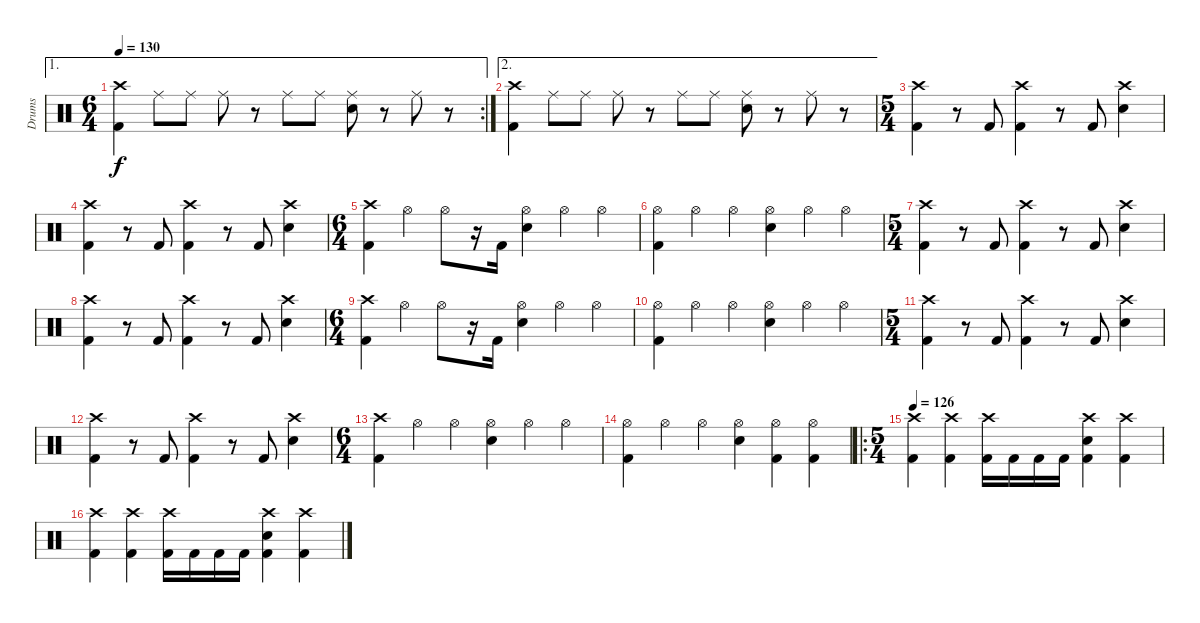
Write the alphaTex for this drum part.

\track ("Drums" "Drums") {instrument percussion}
\staff {score}
\articulation defaults
\ae 1
\rc 2
\ts (6 4)
\tempo 130
\clef neutral
\ks c
("Crash high (hit)" "Kick (hit) 2").4{dy f} "Ride (middle)".8 "Ride (middle)".8 "Ride (middle)".8 r.8 "Ride (middle)".8 "Ride (middle)".8 ("Ride (middle)" "Snare (hit) 2").8 r.8 "Ride (middle)".8 r.8 |
\ae 2
("Crash high (hit)" "Kick (hit) 2").4 "Ride (middle)".8 "Ride (middle)".8 "Ride (middle)".8 r.8 "Ride (middle)".8 "Ride (middle)".8 ("Ride (middle)" "Snare (hit) 2").8 r.8 "Ride (middle)".8 r.8 |
\ts (5 4)
("Crash high (hit)" "Kick (hit) 2").4 r.8 "Kick (hit) 2".8 ("Crash high (hit)" "Kick (hit) 2").4 r.8 "Kick (hit) 2".8 ("Crash high (hit)" "Snare (hit) 2").4 |
("Crash high (hit)" "Kick (hit) 2").4 r.8 "Kick (hit) 2".8 ("Crash high (hit)" "Kick (hit) 2").4 r.8 "Kick (hit) 2".8 ("Crash high (hit)" "Snare (hit) 2").4 |
\ts (6 4)
("Crash high (hit)" "Kick (hit) 2").4 "Hi-Hat (open)".4 "Hi-Hat (open)".8 r.16 "Kick (hit) 2".16 ("Hi-Hat (open)" "Snare (hit) 2").4 "Hi-Hat (open)".4 "Hi-Hat (open)".4 |
("Hi-Hat (open)" "Kick (hit) 2").4 "Hi-Hat (open)".4 "Hi-Hat (open)".4 ("Hi-Hat (open)" "Snare (hit) 2").4 "Hi-Hat (open)".4 "Hi-Hat (open)".4 |
\ts (5 4)
("Crash high (hit)" "Kick (hit) 2").4 r.8 "Kick (hit) 2".8 ("Crash high (hit)" "Kick (hit) 2").4 r.8 "Kick (hit) 2".8 ("Crash high (hit)" "Snare (hit) 2").4 |
("Crash high (hit)" "Kick (hit) 2").4 r.8 "Kick (hit) 2".8 ("Crash high (hit)" "Kick (hit) 2").4 r.8 "Kick (hit) 2".8 ("Crash high (hit)" "Snare (hit) 2").4 |
\ts (6 4)
("Crash high (hit)" "Kick (hit) 2").4 "Hi-Hat (open)".4 "Hi-Hat (open)".8 r.16 "Kick (hit) 2".16 ("Hi-Hat (open)" "Snare (hit) 2").4 "Hi-Hat (open)".4 "Hi-Hat (open)".4 |
("Hi-Hat (open)" "Kick (hit) 2").4 "Hi-Hat (open)".4 "Hi-Hat (open)".4 ("Hi-Hat (open)" "Snare (hit) 2").4 "Hi-Hat (open)".4 "Hi-Hat (open)".4 |
\ts (5 4)
("Crash high (hit)" "Kick (hit) 2").4 r.8 "Kick (hit) 2".8 ("Crash high (hit)" "Kick (hit) 2").4 r.8 "Kick (hit) 2".8 ("Crash high (hit)" "Snare (hit) 2").4 |
("Crash high (hit)" "Kick (hit) 2").4 r.8 "Kick (hit) 2".8 ("Crash high (hit)" "Kick (hit) 2").4 r.8 "Kick (hit) 2".8 ("Crash high (hit)" "Snare (hit) 2").4 |
\ts (6 4)
("Crash high (hit)" "Kick (hit) 2").4 "Hi-Hat (open)".4 "Hi-Hat (open)".4 ("Hi-Hat (open)" "Snare (hit) 2").4 "Hi-Hat (open)".4 "Hi-Hat (open)".4 |
("Hi-Hat (open)" "Kick (hit) 2").4 "Hi-Hat (open)".4 "Hi-Hat (open)".4 ("Hi-Hat (open)" "Snare (hit) 2").4 ("Hi-Hat (open)" "Kick (hit) 2").4 ("Hi-Hat (open)" "Kick (hit) 2").4 |
\ro
\ts (5 4)
\tempo 126
("Crash high (hit)" "Kick (hit) 2").4 ("Crash high (hit)" "Kick (hit) 2").4 ("Crash high (hit)" "Kick (hit) 2").16 "Kick (hit) 2".16 "Kick (hit) 2".16 "Kick (hit) 2".16 ("Crash high (hit)" "Snare (hit) 2" "Kick (hit) 2").4 ("Crash high (hit)" "Kick (hit) 2").4 |
("Crash high (hit)" "Kick (hit) 2").4 ("Crash high (hit)" "Kick (hit) 2").4 ("Crash high (hit)" "Kick (hit) 2").16 "Kick (hit) 2".16 "Kick (hit) 2".16 "Kick (hit) 2".16 ("Crash high (hit)" "Snare (hit) 2" "Kick (hit) 2").4 ("Crash high (hit)" "Kick (hit) 2").4
